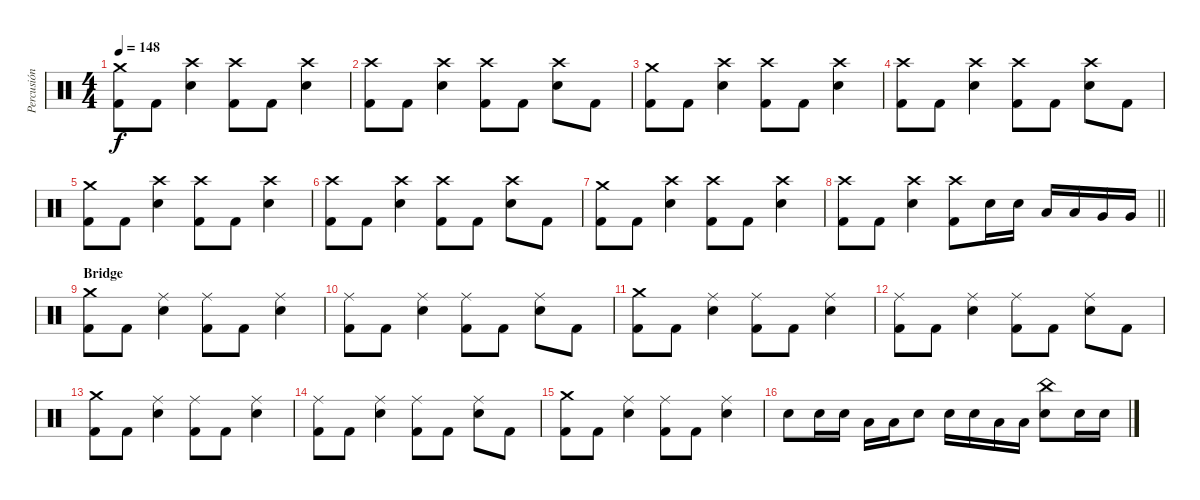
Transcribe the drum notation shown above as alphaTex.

\track ("Percusión" "Percusión") {instrument percussion}
\staff {score}
\articulation defaults
\ts (4 4)
\tempo 148
\clef neutral
\ks c
("Crash medium (hit)" "Kick (hit) 2").8{dy f} "Kick (hit) 2".8 ("Crash high (hit)" "Electric Snare (hit)").4 ("Crash high (hit)" "Kick (hit) 2").8 "Kick (hit) 2".8 ("Crash high (hit)" "Electric Snare (hit)").4 |
("Crash high (hit)" "Kick (hit) 2").8 "Kick (hit) 2".8 ("Crash high (hit)" "Electric Snare (hit)").4 ("Crash high (hit)" "Kick (hit) 2").8 "Kick (hit) 2".8 ("Crash high (hit)" "Electric Snare (hit)").8 "Kick (hit) 2".8 |
("Crash medium (hit)" "Kick (hit) 2").8 "Kick (hit) 2".8 ("Crash high (hit)" "Electric Snare (hit)").4 ("Crash high (hit)" "Kick (hit) 2").8 "Kick (hit) 2".8 ("Crash high (hit)" "Electric Snare (hit)").4 |
("Crash high (hit)" "Kick (hit) 2").8 "Kick (hit) 2".8 ("Crash high (hit)" "Electric Snare (hit)").4 ("Crash high (hit)" "Kick (hit) 2").8 "Kick (hit) 2".8 ("Crash high (hit)" "Electric Snare (hit)").8 "Kick (hit) 2".8 |
("Crash medium (hit)" "Kick (hit) 2").8 "Kick (hit) 2".8 ("Crash high (hit)" "Electric Snare (hit)").4 ("Crash high (hit)" "Kick (hit) 2").8 "Kick (hit) 2".8 ("Crash high (hit)" "Electric Snare (hit)").4 |
("Crash high (hit)" "Kick (hit) 2").8 "Kick (hit) 2".8 ("Crash high (hit)" "Electric Snare (hit)").4 ("Crash high (hit)" "Kick (hit) 2").8 "Kick (hit) 2".8 ("Crash high (hit)" "Electric Snare (hit)").8 "Kick (hit) 2".8 |
("Crash medium (hit)" "Kick (hit) 2").8 "Kick (hit) 2".8 ("Crash high (hit)" "Electric Snare (hit)").4 ("Crash high (hit)" "Kick (hit) 2").8 "Kick (hit) 2".8 ("Crash high (hit)" "Electric Snare (hit)").4 |
\barLineRight lightlight
("Crash high (hit)" "Kick (hit) 2").8 "Kick (hit) 2".8 ("Crash high (hit)" "Electric Snare (hit)").4 ("Crash high (hit)" "Kick (hit) 2").8 "Electric Snare (hit)".16 "Electric Snare (hit)".16 "Low Tom (hit)".16 "Low Tom (hit)".16 "Very Low Tom (hit)".16 "Very Low Tom (hit)".16 |
\section ("" "Bridge")
("Crash medium (hit)" "Kick (hit) 2").8 "Kick (hit) 2".8 ("Ride (middle)" "Electric Snare (hit)").4 ("Ride (middle)" "Kick (hit) 2").8 "Kick (hit) 2".8 ("Ride (middle)" "Electric Snare (hit)").4 |
("Ride (middle)" "Kick (hit) 2").8 "Kick (hit) 2".8 ("Ride (middle)" "Electric Snare (hit)").4 ("Ride (middle)" "Kick (hit) 2").8 "Kick (hit) 2".8 ("Ride (middle)" "Electric Snare (hit)").8 "Kick (hit) 2".8 |
("Crash medium (hit)" "Kick (hit) 2").8 "Kick (hit) 2".8 ("Ride (middle)" "Electric Snare (hit)").4 ("Ride (middle)" "Kick (hit) 2").8 "Kick (hit) 2".8 ("Ride (middle)" "Electric Snare (hit)").4 |
("Ride (middle)" "Kick (hit) 2").8 "Kick (hit) 2".8 ("Ride (middle)" "Electric Snare (hit)").4 ("Ride (middle)" "Kick (hit) 2").8 "Kick (hit) 2".8 ("Ride (middle)" "Electric Snare (hit)").8 "Kick (hit) 2".8 |
("Crash medium (hit)" "Kick (hit) 2").8 "Kick (hit) 2".8 ("Ride (middle)" "Electric Snare (hit)").4 ("Ride (middle)" "Kick (hit) 2").8 "Kick (hit) 2".8 ("Ride (middle)" "Electric Snare (hit)").4 |
("Ride (middle)" "Kick (hit) 2").8 "Kick (hit) 2".8 ("Ride (middle)" "Electric Snare (hit)").4 ("Ride (middle)" "Kick (hit) 2").8 "Kick (hit) 2".8 ("Ride (middle)" "Electric Snare (hit)").8 "Kick (hit) 2".8 |
("Crash medium (hit)" "Kick (hit) 2").8 "Kick (hit) 2".8 ("Ride (middle)" "Electric Snare (hit)").4 ("Ride (middle)" "Kick (hit) 2").8 "Kick (hit) 2".8 ("Ride (middle)" "Electric Snare (hit)").4 |
"Electric Snare (hit)".8 "Electric Snare (hit)".16 "Electric Snare (hit)".16 "Low Tom (hit)".16 "Low Tom (hit)".16 "Electric Snare (hit)".8 "Electric Snare (hit)".16 "Electric Snare (hit)".16 "Low Tom (hit)".16 "Low Tom (hit)".16 ("China (hit)" "Electric Snare (hit)").8 "Electric Snare (hit)".16 "Electric Snare (hit)".16
